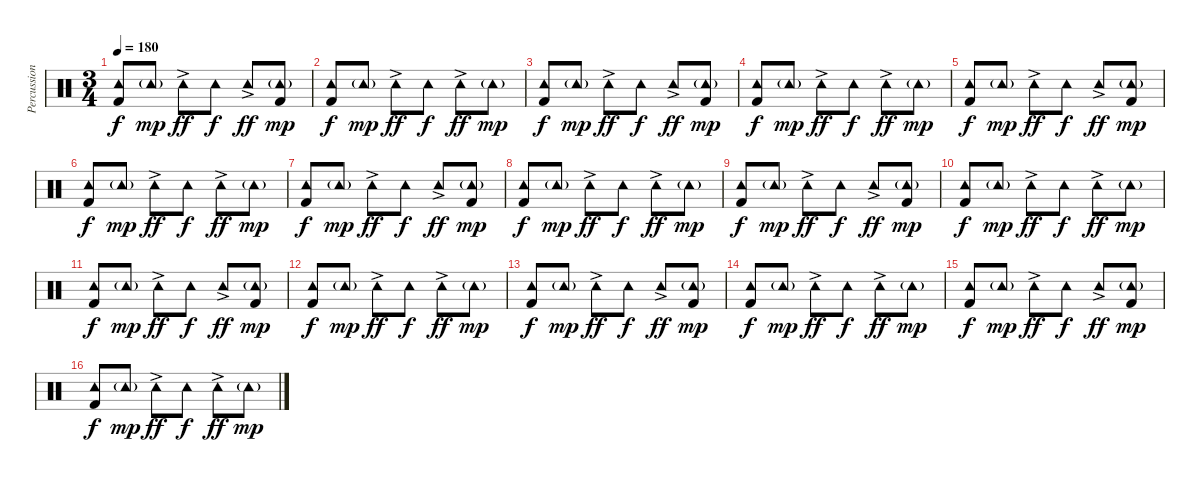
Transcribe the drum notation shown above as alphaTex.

\track ("Percussion" "Percussion") {instrument percussion}
\staff {score}
\articulation defaults
\ts (3 4)
\tempo 180
\clef neutral
\ks c
("Tambourine (hit)" "Kick (hit) 2").8{dy f} "Tambourine (hit)"{g}.8{dy mp} "Tambourine (hit)"{ac}.8{dy ff volume 10} "Tambourine (hit)".8{dy f volume 6} "Tambourine (hit)"{ac}.8{dy ff volume 10} ("Tambourine (hit)"{g} "Kick (hit) 2").8{dy mp} |
("Tambourine (hit)" "Kick (hit) 2").8{dy f} "Tambourine (hit)"{g}.8{dy mp} "Tambourine (hit)"{ac}.8{dy ff volume 10} "Tambourine (hit)".8{dy f volume 6} "Tambourine (hit)"{ac}.8{dy ff volume 10} "Tambourine (hit)"{g}.8{dy mp} |
("Tambourine (hit)" "Kick (hit) 2").8{dy f} "Tambourine (hit)"{g}.8{dy mp} "Tambourine (hit)"{ac}.8{dy ff volume 10} "Tambourine (hit)".8{dy f volume 6} "Tambourine (hit)"{ac}.8{dy ff volume 10} ("Tambourine (hit)"{g} "Kick (hit) 2").8{dy mp} |
("Tambourine (hit)" "Kick (hit) 2").8{dy f} "Tambourine (hit)"{g}.8{dy mp} "Tambourine (hit)"{ac}.8{dy ff volume 10} "Tambourine (hit)".8{dy f volume 6} "Tambourine (hit)"{ac}.8{dy ff volume 10} "Tambourine (hit)"{g}.8{dy mp} |
("Tambourine (hit)" "Kick (hit) 2").8{dy f} "Tambourine (hit)"{g}.8{dy mp} "Tambourine (hit)"{ac}.8{dy ff volume 10} "Tambourine (hit)".8{dy f volume 6} "Tambourine (hit)"{ac}.8{dy ff volume 10} ("Tambourine (hit)"{g} "Kick (hit) 2").8{dy mp} |
("Tambourine (hit)" "Kick (hit) 2").8{dy f} "Tambourine (hit)"{g}.8{dy mp} "Tambourine (hit)"{ac}.8{dy ff volume 10} "Tambourine (hit)".8{dy f volume 6} "Tambourine (hit)"{ac}.8{dy ff volume 10} "Tambourine (hit)"{g}.8{dy mp} |
("Tambourine (hit)" "Kick (hit) 2").8{dy f} "Tambourine (hit)"{g}.8{dy mp} "Tambourine (hit)"{ac}.8{dy ff volume 10} "Tambourine (hit)".8{dy f volume 6} "Tambourine (hit)"{ac}.8{dy ff volume 10} ("Tambourine (hit)"{g} "Kick (hit) 2").8{dy mp} |
("Tambourine (hit)" "Kick (hit) 2").8{dy f} "Tambourine (hit)"{g}.8{dy mp} "Tambourine (hit)"{ac}.8{dy ff volume 10} "Tambourine (hit)".8{dy f volume 6} "Tambourine (hit)"{ac}.8{dy ff volume 10} "Tambourine (hit)"{g}.8{dy mp} |
("Tambourine (hit)" "Kick (hit) 2").8{dy f} "Tambourine (hit)"{g}.8{dy mp} "Tambourine (hit)"{ac}.8{dy ff volume 10} "Tambourine (hit)".8{dy f volume 6} "Tambourine (hit)"{ac}.8{dy ff volume 10} ("Tambourine (hit)"{g} "Kick (hit) 2").8{dy mp} |
("Tambourine (hit)" "Kick (hit) 2").8{dy f} "Tambourine (hit)"{g}.8{dy mp} "Tambourine (hit)"{ac}.8{dy ff volume 10} "Tambourine (hit)".8{dy f volume 6} "Tambourine (hit)"{ac}.8{dy ff volume 10} "Tambourine (hit)"{g}.8{dy mp} |
("Tambourine (hit)" "Kick (hit) 2").8{dy f} "Tambourine (hit)"{g}.8{dy mp} "Tambourine (hit)"{ac}.8{dy ff volume 10} "Tambourine (hit)".8{dy f volume 6} "Tambourine (hit)"{ac}.8{dy ff volume 10} ("Tambourine (hit)"{g} "Kick (hit) 2").8{dy mp} |
("Tambourine (hit)" "Kick (hit) 2").8{dy f} "Tambourine (hit)"{g}.8{dy mp} "Tambourine (hit)"{ac}.8{dy ff volume 10} "Tambourine (hit)".8{dy f volume 6} "Tambourine (hit)"{ac}.8{dy ff volume 10} "Tambourine (hit)"{g}.8{dy mp} |
("Tambourine (hit)" "Kick (hit) 2").8{dy f} "Tambourine (hit)"{g}.8{dy mp} "Tambourine (hit)"{ac}.8{dy ff volume 10} "Tambourine (hit)".8{dy f volume 6} "Tambourine (hit)"{ac}.8{dy ff volume 10} ("Tambourine (hit)"{g} "Kick (hit) 2").8{dy mp} |
("Tambourine (hit)" "Kick (hit) 2").8{dy f} "Tambourine (hit)"{g}.8{dy mp} "Tambourine (hit)"{ac}.8{dy ff volume 10} "Tambourine (hit)".8{dy f volume 6} "Tambourine (hit)"{ac}.8{dy ff volume 10} "Tambourine (hit)"{g}.8{dy mp} |
("Tambourine (hit)" "Kick (hit) 2").8{dy f} "Tambourine (hit)"{g}.8{dy mp} "Tambourine (hit)"{ac}.8{dy ff volume 10} "Tambourine (hit)".8{dy f volume 6} "Tambourine (hit)"{ac}.8{dy ff volume 10} ("Tambourine (hit)"{g} "Kick (hit) 2").8{dy mp} |
("Tambourine (hit)" "Kick (hit) 2").8{dy f} "Tambourine (hit)"{g}.8{dy mp} "Tambourine (hit)"{ac}.8{dy ff volume 10} "Tambourine (hit)".8{dy f volume 6} "Tambourine (hit)"{ac}.8{dy ff volume 10} "Tambourine (hit)"{g}.8{dy mp}
